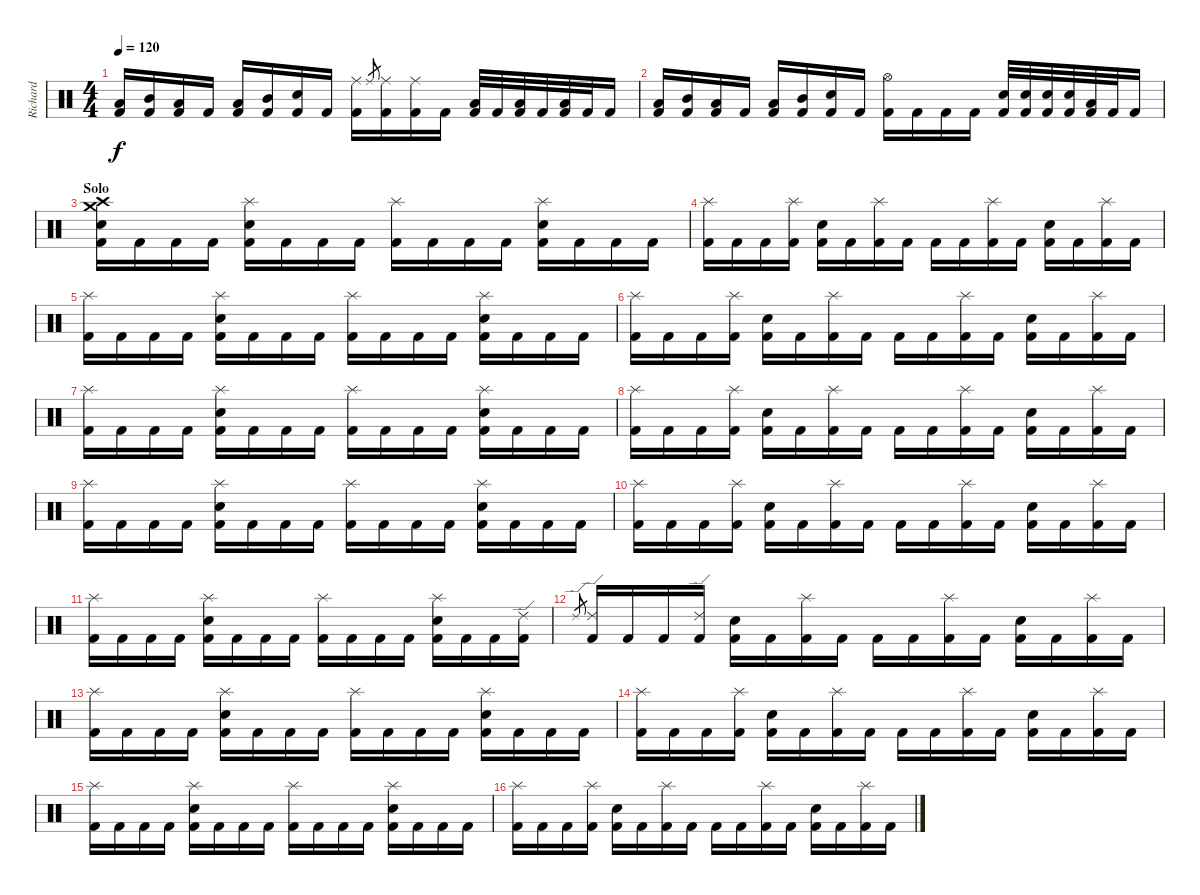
\track ("Richard " "Richard ") {instrument percussion}
\staff {score}
\articulation defaults
\ts (4 4)
\tempo 120
\clef neutral
\ks c
("Low Tom (hit)" "Kick (hit) 2").16{dy f} ("Mid Tom (hit)" "Kick (hit) 2").16 ("Low Tom (hit)" "Kick (hit) 2").16 "Kick (hit) 2".16 ("Low Tom (hit)" "Kick (hit) 2").16 ("Mid Tom (hit)" "Kick (hit) 2").16 ("Snare (hit) 2" "Kick (hit) 2").16 "Kick (hit) 2".16 ("Ride (middle)" "Kick (hit) 2").16 "Ride (middle)".8{gr} ("Ride (middle)" "Kick (hit) 2").16 ("Ride (middle)" "Kick (hit) 2").16 "Kick (hit) 2".16 ("Low Tom (hit)" "Kick (hit) 2").32 "Kick (hit) 2".32 ("Low Tom (hit)" "Kick (hit) 2").32 "Kick (hit) 2".32 ("Low Tom (hit)" "Kick (hit) 2").32 "Kick (hit) 2".32 "Kick (hit) 2".16 |
("Low Tom (hit)" "Kick (hit) 2").16 ("Mid Tom (hit)" "Kick (hit) 2").16 ("Low Tom (hit)" "Kick (hit) 2").16 "Kick (hit) 2".16 ("Low Tom (hit)" "Kick (hit) 2").16 ("Mid Tom (hit)" "Kick (hit) 2").16 ("Snare (hit) 2" "Kick (hit) 2").16 "Kick (hit) 2".16 ("Hi-Hat (open)" "Kick (hit) 2").16 "Kick (hit) 2".16 "Kick (hit) 2".16 "Kick (hit) 2".16 ("Electric Snare (hit)" "Kick (hit) 2").32 ("Electric Snare (hit)" "Kick (hit) 2").32 ("Snare (hit) 2" "Kick (hit) 2").32 ("Snare (hit) 2" "Kick (hit) 2").32 ("Low Tom (hit)" "Kick (hit) 2").32 "Kick (hit) 2".32 "Kick (hit) 2".16 |
\section ("" "Solo ")
("Crash high (hit)" "Crash medium (hit)" "Snare (hit) 2" "Kick (hit) 2").16 "Kick (hit) 2".16 "Kick (hit) 2".16 "Kick (hit) 2".16 ("Splash (hit)" "Snare (hit) 2" "Kick (hit) 2").16 "Kick (hit) 2".16 "Kick (hit) 2".16 "Kick (hit) 2".16 ("Splash (hit)" "Kick (hit) 2").16 "Kick (hit) 2".16 "Kick (hit) 2".16 "Kick (hit) 2".16 ("Splash (hit)" "Snare (hit) 2" "Kick (hit) 2").16 "Kick (hit) 2".16 "Kick (hit) 2".16 "Kick (hit) 2".16 |
("Splash (hit)" "Kick (hit) 2").16 "Kick (hit) 2".16 "Kick (hit) 2".16 ("Splash (hit)" "Kick (hit) 2").16 ("Snare (hit) 2" "Kick (hit) 2").16 "Kick (hit) 2".16 ("Splash (hit)" "Kick (hit) 2").16 "Kick (hit) 2".16 "Kick (hit) 2".16 "Kick (hit) 2".16 ("Splash (hit)" "Kick (hit) 2").16 "Kick (hit) 2".16 ("Snare (hit) 2" "Kick (hit) 2").16 "Kick (hit) 2".16 ("Splash (hit)" "Kick (hit) 2").16 "Kick (hit) 2".16 |
("Splash (hit)" "Kick (hit) 2").16 "Kick (hit) 2".16 "Kick (hit) 2".16 "Kick (hit) 2".16 ("Splash (hit)" "Snare (hit) 2" "Kick (hit) 2").16 "Kick (hit) 2".16 "Kick (hit) 2".16 "Kick (hit) 2".16 ("Splash (hit)" "Kick (hit) 2").16 "Kick (hit) 2".16 "Kick (hit) 2".16 "Kick (hit) 2".16 ("Splash (hit)" "Snare (hit) 2" "Kick (hit) 2").16 "Kick (hit) 2".16 "Kick (hit) 2".16 "Kick (hit) 2".16 |
("Splash (hit)" "Kick (hit) 2").16 "Kick (hit) 2".16 "Kick (hit) 2".16 ("Splash (hit)" "Kick (hit) 2").16 ("Snare (hit) 2" "Kick (hit) 2").16 "Kick (hit) 2".16 ("Splash (hit)" "Kick (hit) 2").16 "Kick (hit) 2".16 "Kick (hit) 2".16 "Kick (hit) 2".16 ("Splash (hit)" "Kick (hit) 2").16 "Kick (hit) 2".16 ("Snare (hit) 2" "Kick (hit) 2").16 "Kick (hit) 2".16 ("Splash (hit)" "Kick (hit) 2").16 "Kick (hit) 2".16 |
("Splash (hit)" "Kick (hit) 2").16 "Kick (hit) 2".16 "Kick (hit) 2".16 "Kick (hit) 2".16 ("Splash (hit)" "Snare (hit) 2" "Kick (hit) 2").16 "Kick (hit) 2".16 "Kick (hit) 2".16 "Kick (hit) 2".16 ("Splash (hit)" "Kick (hit) 2").16 "Kick (hit) 2".16 "Kick (hit) 2".16 "Kick (hit) 2".16 ("Splash (hit)" "Snare (hit) 2" "Kick (hit) 2").16 "Kick (hit) 2".16 "Kick (hit) 2".16 "Kick (hit) 2".16 |
("Splash (hit)" "Kick (hit) 2").16 "Kick (hit) 2".16 "Kick (hit) 2".16 ("Splash (hit)" "Kick (hit) 2").16 ("Snare (hit) 2" "Kick (hit) 2").16 "Kick (hit) 2".16 ("Splash (hit)" "Kick (hit) 2").16 "Kick (hit) 2".16 "Kick (hit) 2".16 "Kick (hit) 2".16 ("Splash (hit)" "Kick (hit) 2").16 "Kick (hit) 2".16 ("Snare (hit) 2" "Kick (hit) 2").16 "Kick (hit) 2".16 ("Splash (hit)" "Kick (hit) 2").16 "Kick (hit) 2".16 |
("Splash (hit)" "Kick (hit) 2").16 "Kick (hit) 2".16 "Kick (hit) 2".16 "Kick (hit) 2".16 ("Splash (hit)" "Snare (hit) 2" "Kick (hit) 2").16 "Kick (hit) 2".16 "Kick (hit) 2".16 "Kick (hit) 2".16 ("Splash (hit)" "Kick (hit) 2").16 "Kick (hit) 2".16 "Kick (hit) 2".16 "Kick (hit) 2".16 ("Splash (hit)" "Snare (hit) 2" "Kick (hit) 2").16 "Kick (hit) 2".16 "Kick (hit) 2".16 "Kick (hit) 2".16 |
("Splash (hit)" "Kick (hit) 2").16 "Kick (hit) 2".16 "Kick (hit) 2".16 ("Splash (hit)" "Kick (hit) 2").16 ("Snare (hit) 2" "Kick (hit) 2").16 "Kick (hit) 2".16 ("Splash (hit)" "Kick (hit) 2").16 "Kick (hit) 2".16 "Kick (hit) 2".16 "Kick (hit) 2".16 ("Splash (hit)" "Kick (hit) 2").16 "Kick (hit) 2".16 ("Snare (hit) 2" "Kick (hit) 2").16 "Kick (hit) 2".16 ("Splash (hit)" "Kick (hit) 2").16 "Kick (hit) 2".16 |
("Splash (hit)" "Kick (hit) 2").16 "Kick (hit) 2".16 "Kick (hit) 2".16 "Kick (hit) 2".16 ("Splash (hit)" "Snare (hit) 2" "Kick (hit) 2").16 "Kick (hit) 2".16 "Kick (hit) 2".16 "Kick (hit) 2".16 ("Splash (hit)" "Kick (hit) 2").16 "Kick (hit) 2".16 "Kick (hit) 2".16 "Kick (hit) 2".16 ("Splash (hit)" "Snare (hit) 2" "Kick (hit) 2").16 "Kick (hit) 2".16 "Kick (hit) 2".16 ("Ride (edge) 2" "Kick (hit) 2").16 |
"Ride (edge) 2".8{gr} ("Ride (edge) 2" "Kick (hit) 2").16 "Kick (hit) 2".16 "Kick (hit) 2".16 ("Ride (edge) 2" "Kick (hit) 2").16 ("Snare (hit) 2" "Kick (hit) 2").16 "Kick (hit) 2".16 ("Splash (hit)" "Kick (hit) 2").16 "Kick (hit) 2".16 "Kick (hit) 2".16 "Kick (hit) 2".16 ("Splash (hit)" "Kick (hit) 2").16 "Kick (hit) 2".16 ("Snare (hit) 2" "Kick (hit) 2").16 "Kick (hit) 2".16 ("Splash (hit)" "Kick (hit) 2").16 "Kick (hit) 2".16 |
("Splash (hit)" "Kick (hit) 2").16 "Kick (hit) 2".16 "Kick (hit) 2".16 "Kick (hit) 2".16 ("Splash (hit)" "Snare (hit) 2" "Kick (hit) 2").16 "Kick (hit) 2".16 "Kick (hit) 2".16 "Kick (hit) 2".16 ("Splash (hit)" "Kick (hit) 2").16 "Kick (hit) 2".16 "Kick (hit) 2".16 "Kick (hit) 2".16 ("Splash (hit)" "Snare (hit) 2" "Kick (hit) 2").16 "Kick (hit) 2".16 "Kick (hit) 2".16 "Kick (hit) 2".16 |
("Splash (hit)" "Kick (hit) 2").16 "Kick (hit) 2".16 "Kick (hit) 2".16 ("Splash (hit)" "Kick (hit) 2").16 ("Snare (hit) 2" "Kick (hit) 2").16 "Kick (hit) 2".16 ("Splash (hit)" "Kick (hit) 2").16 "Kick (hit) 2".16 "Kick (hit) 2".16 "Kick (hit) 2".16 ("Splash (hit)" "Kick (hit) 2").16 "Kick (hit) 2".16 ("Snare (hit) 2" "Kick (hit) 2").16 "Kick (hit) 2".16 ("Splash (hit)" "Kick (hit) 2").16 "Kick (hit) 2".16 |
("Splash (hit)" "Kick (hit) 2").16 "Kick (hit) 2".16 "Kick (hit) 2".16 "Kick (hit) 2".16 ("Splash (hit)" "Snare (hit) 2" "Kick (hit) 2").16 "Kick (hit) 2".16 "Kick (hit) 2".16 "Kick (hit) 2".16 ("Splash (hit)" "Kick (hit) 2").16 "Kick (hit) 2".16 "Kick (hit) 2".16 "Kick (hit) 2".16 ("Splash (hit)" "Snare (hit) 2" "Kick (hit) 2").16 "Kick (hit) 2".16 "Kick (hit) 2".16 "Kick (hit) 2".16 |
("Splash (hit)" "Kick (hit) 2").16 "Kick (hit) 2".16 "Kick (hit) 2".16 ("Splash (hit)" "Kick (hit) 2").16 ("Snare (hit) 2" "Kick (hit) 2").16 "Kick (hit) 2".16 ("Splash (hit)" "Kick (hit) 2").16 "Kick (hit) 2".16 "Kick (hit) 2".16 "Kick (hit) 2".16 ("Splash (hit)" "Kick (hit) 2").16 "Kick (hit) 2".16 ("Snare (hit) 2" "Kick (hit) 2").16 "Kick (hit) 2".16 ("Splash (hit)" "Kick (hit) 2").16 "Kick (hit) 2".16
